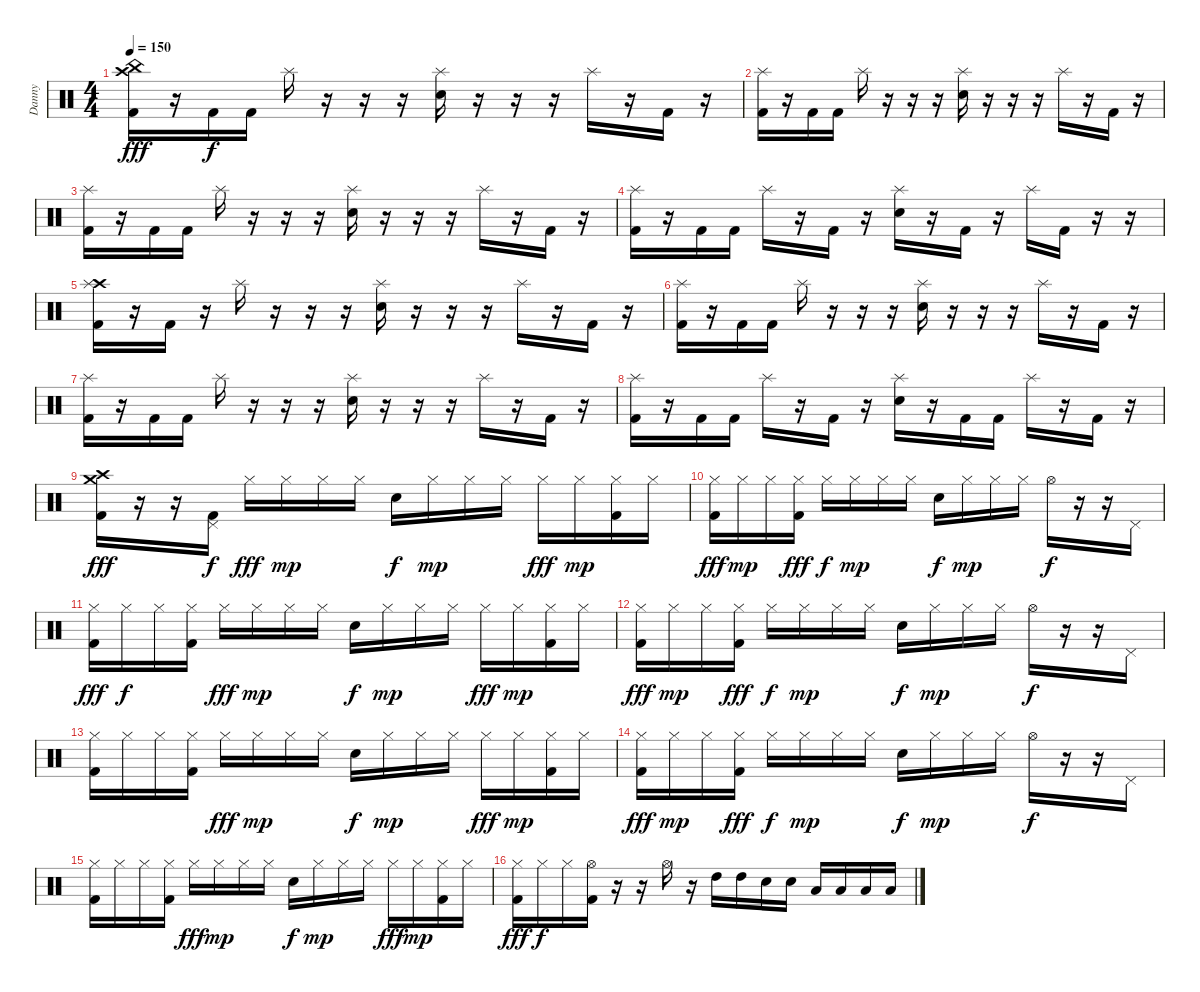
\track ("Danny" "Danny") {instrument percussion}
\staff {score}
\articulation defaults
\ts (4 4)
\tempo 150
\clef neutral
\ks c
("Crash high (hit)" "China (hit)" "Kick (hit) 2").16{dy fff} r.16 "Kick (hit) 2".16{dy f} "Kick (hit) 2".16 "Splash (hit)".16 r.16 r.16 r.16 ("Splash (hit)" "Snare (hit) 2").16 r.16 r.16 r.16 "Splash (hit)".16 r.16 "Kick (hit) 2".16 r.16 |
("Splash (hit)" "Kick (hit) 2").16 r.16 "Kick (hit) 2".16 "Kick (hit) 2".16 "Splash (hit)".16 r.16 r.16 r.16 ("Splash (hit)" "Snare (hit) 2").16 r.16 r.16 r.16 "Splash (hit)".16 r.16 "Kick (hit) 2".16 r.16 |
("Splash (hit)" "Kick (hit) 2").16 r.16 "Kick (hit) 2".16 "Kick (hit) 2".16 "Splash (hit)".16 r.16 r.16 r.16 ("Splash (hit)" "Snare (hit) 2").16 r.16 r.16 r.16 "Splash (hit)".16 r.16 "Kick (hit) 2".16 r.16 |
("Splash (hit)" "Kick (hit) 2").16 r.16 "Kick (hit) 2".16 "Kick (hit) 2".16 "Splash (hit)".16 r.16 "Kick (hit) 2".16 r.16 ("Splash (hit)" "Snare (hit) 2").16 r.16 "Kick (hit) 2".16 r.16 "Splash (hit)".16 "Kick (hit) 2".16 r.16 r.16 |
("Crash high (hit)" "Splash (hit)" "Kick (hit) 2").16 r.16 "Kick (hit) 2".16 r.16 "Splash (hit)".16 r.16 r.16 r.16 ("Splash (hit)" "Snare (hit) 2").16 r.16 r.16 r.16 "Splash (hit)".16 r.16 "Kick (hit) 2".16 r.16 |
("Splash (hit)" "Kick (hit) 2").16 r.16 "Kick (hit) 2".16 "Kick (hit) 2".16 "Splash (hit)".16 r.16 r.16 r.16 ("Splash (hit)" "Snare (hit) 2").16 r.16 r.16 r.16 "Splash (hit)".16 r.16 "Kick (hit) 2".16 r.16 |
("Splash (hit)" "Kick (hit) 2").16 r.16 "Kick (hit) 2".16 "Kick (hit) 2".16 "Splash (hit)".16 r.16 r.16 r.16 ("Splash (hit)" "Snare (hit) 2").16 r.16 r.16 r.16 "Splash (hit)".16 r.16 "Kick (hit) 2".16 r.16 |
("Splash (hit)" "Kick (hit) 2").16 r.16 "Kick (hit) 2".16 "Kick (hit) 2".16 "Splash (hit)".16 r.16 "Kick (hit) 2".16 r.16 ("Splash (hit)" "Snare (hit) 2").16 r.16 "Kick (hit) 2".16 "Kick (hit) 2".16 "Splash (hit)".16 r.16 "Kick (hit) 2".16 r.16 |
("Crash high (hit)" "Crash medium (hit)" "Kick (hit) 2").16{dy fff} r.16 r.16 ("Pedal Hi-Hat (hit)" "Kick (hit) 2").16{dy f} "Hi-Hat (closed)".16{dy fff} "Hi-Hat (closed)".16{dy mp} "Hi-Hat (closed)".16 "Hi-Hat (closed)".16 "Snare (hit) 2".16{dy f} "Hi-Hat (closed)".16{dy mp} "Hi-Hat (closed)".16 "Hi-Hat (closed)".16 "Hi-Hat (closed)".16{dy fff} "Hi-Hat (closed)".16{dy mp} ("Hi-Hat (closed)" "Kick (hit) 2").16 "Hi-Hat (closed)".16 |
("Hi-Hat (closed)" "Kick (hit) 2").16{dy fff} "Hi-Hat (closed)".16{dy mp} "Hi-Hat (closed)".16 ("Hi-Hat (closed)" "Kick (hit) 2").16{dy fff} "Hi-Hat (closed)".16{dy f} "Hi-Hat (closed)".16{dy mp} "Hi-Hat (closed)".16 "Hi-Hat (closed)".16 "Snare (hit) 2".16{dy f} "Hi-Hat (closed)".16{dy mp} "Hi-Hat (closed)".16 "Hi-Hat (closed)".16 "Hi-Hat (open)".16{dy f} r.16 r.16 "Pedal Hi-Hat (hit)".16 |
("Hi-Hat (closed)" "Kick (hit) 2").16{dy fff} "Hi-Hat (closed)".16{dy f} "Hi-Hat (closed)".16 ("Hi-Hat (closed)" "Kick (hit) 2").16 "Hi-Hat (closed)".16{dy fff} "Hi-Hat (closed)".16{dy mp} "Hi-Hat (closed)".16 "Hi-Hat (closed)".16 "Snare (hit) 2".16{dy f} "Hi-Hat (closed)".16{dy mp} "Hi-Hat (closed)".16 "Hi-Hat (closed)".16 "Hi-Hat (closed)".16{dy fff} "Hi-Hat (closed)".16{dy mp} ("Hi-Hat (closed)" "Kick (hit) 2").16 "Hi-Hat (closed)".16 |
("Hi-Hat (closed)" "Kick (hit) 2").16{dy fff} "Hi-Hat (closed)".16{dy mp} "Hi-Hat (closed)".16 ("Hi-Hat (closed)" "Kick (hit) 2").16{dy fff} "Hi-Hat (closed)".16{dy f} "Hi-Hat (closed)".16{dy mp} "Hi-Hat (closed)".16 "Hi-Hat (closed)".16 "Snare (hit) 2".16{dy f} "Hi-Hat (closed)".16{dy mp} "Hi-Hat (closed)".16 "Hi-Hat (closed)".16 "Hi-Hat (open)".16{dy f} r.16 r.16 "Pedal Hi-Hat (hit)".16 |
("Hi-Hat (closed)" "Kick (hit) 2").16 "Hi-Hat (closed)".16 "Hi-Hat (closed)".16 ("Hi-Hat (closed)" "Kick (hit) 2").16 "Hi-Hat (closed)".16{dy fff} "Hi-Hat (closed)".16{dy mp} "Hi-Hat (closed)".16 "Hi-Hat (closed)".16 "Snare (hit) 2".16{dy f} "Hi-Hat (closed)".16{dy mp} "Hi-Hat (closed)".16 "Hi-Hat (closed)".16 "Hi-Hat (closed)".16{dy fff} "Hi-Hat (closed)".16{dy mp} ("Hi-Hat (closed)" "Kick (hit) 2").16 "Hi-Hat (closed)".16 |
("Hi-Hat (closed)" "Kick (hit) 2").16{dy fff} "Hi-Hat (closed)".16{dy mp} "Hi-Hat (closed)".16 ("Hi-Hat (closed)" "Kick (hit) 2").16{dy fff} "Hi-Hat (closed)".16{dy f} "Hi-Hat (closed)".16{dy mp} "Hi-Hat (closed)".16 "Hi-Hat (closed)".16 "Snare (hit) 2".16{dy f} "Hi-Hat (closed)".16{dy mp} "Hi-Hat (closed)".16 "Hi-Hat (closed)".16 "Hi-Hat (open)".16{dy f} r.16 r.16 "Pedal Hi-Hat (hit)".16 |
("Hi-Hat (closed)" "Kick (hit) 2").16 "Hi-Hat (closed)".16 "Hi-Hat (closed)".16 ("Hi-Hat (closed)" "Kick (hit) 2").16 "Hi-Hat (closed)".16{dy fff} "Hi-Hat (closed)".16{dy mp} "Hi-Hat (closed)".16 "Hi-Hat (closed)".16 "Snare (hit) 2".16{dy f} "Hi-Hat (closed)".16{dy mp} "Hi-Hat (closed)".16 "Hi-Hat (closed)".16 "Hi-Hat (closed)".16{dy fff} "Hi-Hat (closed)".16{dy mp} ("Hi-Hat (closed)" "Kick (hit) 2").16 "Hi-Hat (closed)".16 |
("Hi-Hat (closed)" "Kick (hit) 2").16{dy fff} "Hi-Hat (closed)".16{dy f} "Hi-Hat (closed)".16 ("Hi-Hat (open)" "Kick (hit) 2").16 r.16 r.16 "Hi-Hat (open)".16 r.16 "High Tom (hit)".16 "High Tom (hit)".16 "Snare (hit) 2".16 "Snare (hit) 2".16 "Low Tom (hit)".16 "Low Tom (hit)".16 "Low Tom (hit)".16 "Low Tom (hit)".16
